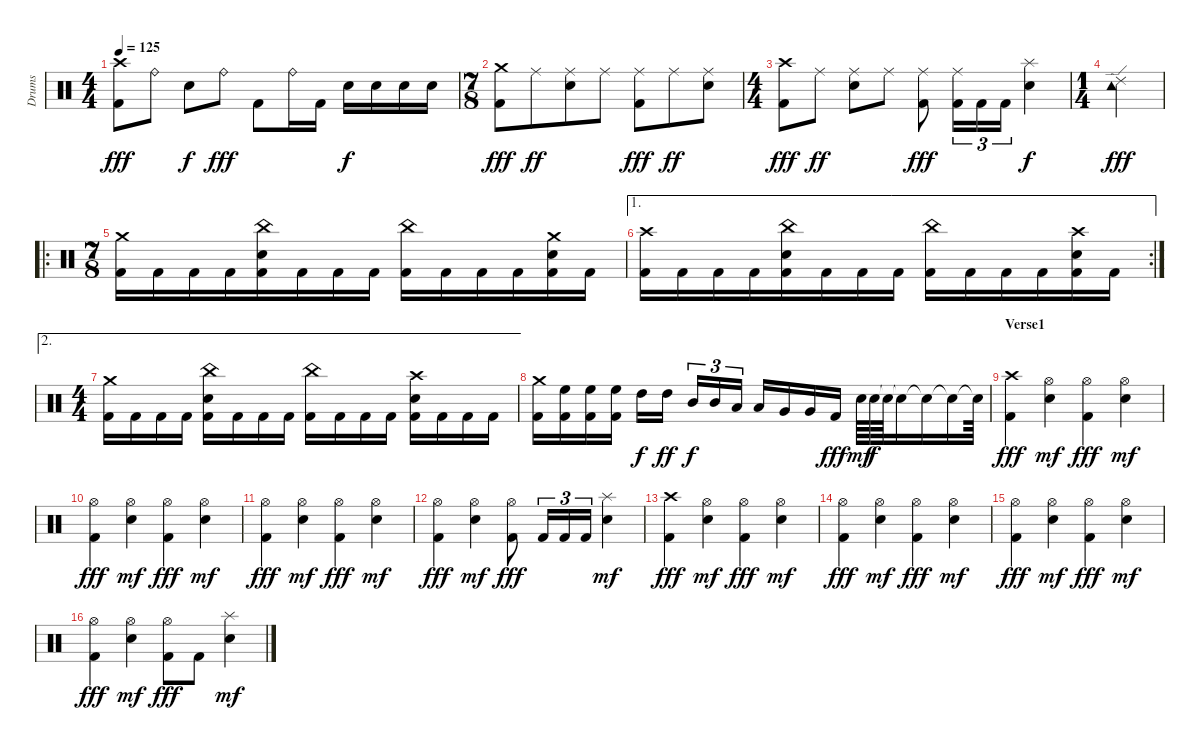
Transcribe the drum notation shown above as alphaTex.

\track ("Drums" "Drums") {instrument percussion}
\staff {score}
\articulation defaults
\ts (4 4)
\tempo 125
\clef neutral
\ks c
("Crash high (hit)" "Kick (hit) 2").8{dy fff} "Ride (bell)".8 "Electric Snare (hit)".8{dy f} "Ride (bell)".8{dy fff} "Kick (hit) 2".8 "Ride (bell)".16 "Kick (hit) 2".16 "Electric Snare (hit)".16{dy f} "Electric Snare (hit)".16 "Electric Snare (hit)".16 "Electric Snare (hit)".16 |
\ts (7 8)
("Crash medium (hit)" "Kick (hit) 2").8{dy fff} "Ride (middle)".8{dy ff} ("Ride (middle)" "Electric Snare (hit)").8 "Ride (middle)".8 ("Ride (middle)" "Kick (hit) 2").8{dy fff} "Ride (middle)".8{dy ff} ("Ride (middle)" "Electric Snare (hit)").8 |
\ts (4 4)
("Crash high (hit)" "Kick (hit) 2").8{dy fff} "Ride (middle)".8{dy ff} ("Ride (middle)" "Electric Snare (hit)").8 "Ride (middle)".8 ("Ride (middle)" "Kick (hit) 2").8{dy fff} ("Ride (middle)" "Kick (hit) 2").16{tu (3 2)} "Kick (hit) 2".16{tu (3 2)} "Kick (hit) 2".16{tu (3 2)} ("Splash (hit)" "Electric Snare (hit)").4{dy f} |
\ts (1 4)
("Tambourine (hit)" "Ride (edge) 2").4{dy fff} |
\ro
\ts (7 8)
("Crash medium (hit)" "Kick (hit) 2").16 "Kick (hit) 2".16 "Kick (hit) 2".16 "Kick (hit) 2".16 ("China (hit)" "Electric Snare (hit)" "Kick (hit) 2").16 "Kick (hit) 2".16 "Kick (hit) 2".16 "Kick (hit) 2".16 ("China (hit)" "Kick (hit) 2").16 "Kick (hit) 2".16 "Kick (hit) 2".16 "Kick (hit) 2".16 ("Crash medium (hit)" "Electric Snare (hit)" "Kick (hit) 2").16 "Kick (hit) 2".16 |
\ae 1
\rc 2
("Crash high (hit)" "Kick (hit) 2").16 "Kick (hit) 2".16 "Kick (hit) 2".16 "Kick (hit) 2".16 ("China (hit)" "Electric Snare (hit)" "Kick (hit) 2").16 "Kick (hit) 2".16 "Kick (hit) 2".16 "Kick (hit) 2".16 ("China (hit)" "Kick (hit) 2").16 "Kick (hit) 2".16 "Kick (hit) 2".16 "Kick (hit) 2".16 ("Crash high (hit)" "Electric Snare (hit)" "Kick (hit) 2").16 "Kick (hit) 2".16 |
\ae 2
\ts (4 4)
("Crash medium (hit)" "Kick (hit) 2").16 "Kick (hit) 2".16 "Kick (hit) 2".16 "Kick (hit) 2".16 ("China (hit)" "Electric Snare (hit)" "Kick (hit) 2").16 "Kick (hit) 2".16 "Kick (hit) 2".16 "Kick (hit) 2".16 ("China (hit)" "Kick (hit) 2").16 "Kick (hit) 2".16 "Kick (hit) 2".16 "Kick (hit) 2".16 ("Crash high (hit)" "Electric Snare (hit)" "Kick (hit) 2").16 "Kick (hit) 2".16 "Kick (hit) 2".16 "Kick (hit) 2".16 |
("Crash medium (hit)" "Kick (hit) 2").16 ("High Floor Tom (hit)" "Kick (hit) 2").16 ("High Floor Tom (hit)" "Kick (hit) 2").16 ("High Floor Tom (hit)" "Kick (hit) 2").16 "High Tom (hit)".16{dy f} "High Tom (hit)".16{dy ff} "Mid Tom (hit)".16{tu (3 2) dy f} "Mid Tom (hit)".16{tu (3 2)} "Low Tom (hit)".16{tu (3 2)} "Low Tom (hit)".16 "Very Low Tom (hit)".16 "Very Low Tom (hit)".16 "Kick (hit) 2".16{dy fff} "Electric Snare (hit)".64{dy mf} "Electric Snare (hit)".64{dy f} "Snare (hit)"{t}.64 "Snare (hit)"{t}.16 "Snare (hit)"{t}.16 "Snare (hit)"{t}.16 "Snare (hit)"{t}.64 |
\section ("" "Verse1")
("Crash high (hit)" "Kick (hit) 2").4{dy fff} ("Hi-Hat (open)" "Electric Snare (hit)").4{dy mf} ("Hi-Hat (open)" "Kick (hit) 2").4{dy fff} ("Hi-Hat (open)" "Electric Snare (hit)").4{dy mf} |
("Hi-Hat (open)" "Kick (hit) 2").4{dy fff} ("Hi-Hat (open)" "Electric Snare (hit)").4{dy mf} ("Hi-Hat (open)" "Kick (hit) 2").4{dy fff} ("Hi-Hat (open)" "Electric Snare (hit)").4{dy mf} |
("Hi-Hat (open)" "Kick (hit) 2").4{dy fff} ("Hi-Hat (open)" "Electric Snare (hit)").4{dy mf} ("Hi-Hat (open)" "Kick (hit) 2").4{dy fff} ("Hi-Hat (open)" "Electric Snare (hit)").4{dy mf} |
("Hi-Hat (open)" "Kick (hit) 2").4{dy fff} ("Hi-Hat (open)" "Electric Snare (hit)").4{dy mf} ("Hi-Hat (open)" "Kick (hit) 2").8{dy fff} "Kick (hit) 2".16{tu (3 2)} "Kick (hit) 2".16{tu (3 2)} "Kick (hit) 2".16{tu (3 2)} ("Splash (hit)" "Electric Snare (hit)").4{dy mf} |
("Crash high (hit)" "Kick (hit) 2").4{dy fff} ("Hi-Hat (open)" "Electric Snare (hit)").4{dy mf} ("Hi-Hat (open)" "Kick (hit) 2").4{dy fff} ("Hi-Hat (open)" "Electric Snare (hit)").4{dy mf} |
("Hi-Hat (open)" "Kick (hit) 2").4{dy fff} ("Hi-Hat (open)" "Electric Snare (hit)").4{dy mf} ("Hi-Hat (open)" "Kick (hit) 2").4{dy fff} ("Hi-Hat (open)" "Electric Snare (hit)").4{dy mf} |
("Hi-Hat (open)" "Kick (hit) 2").4{dy fff} ("Hi-Hat (open)" "Electric Snare (hit)").4{dy mf} ("Hi-Hat (open)" "Kick (hit) 2").4{dy fff} ("Hi-Hat (open)" "Electric Snare (hit)").4{dy mf} |
("Hi-Hat (open)" "Kick (hit) 2").4{dy fff} ("Hi-Hat (open)" "Electric Snare (hit)").4{dy mf} ("Hi-Hat (open)" "Kick (hit) 2").8{dy fff} "Kick (hit) 2".8 ("Splash (hit)" "Electric Snare (hit)").4{dy mf}
